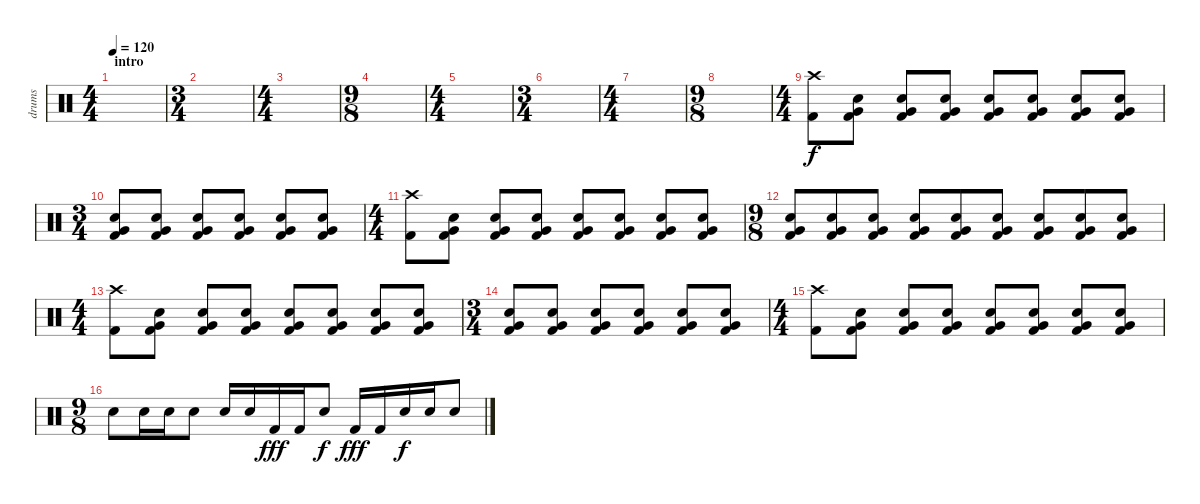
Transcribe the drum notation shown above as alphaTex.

\track ("drums" "drums") {instrument percussion}
\staff {score}
\articulation defaults
\ts (4 4)
\section ("" "intro")
\tempo 120
\clef neutral
\ks c
|
\ts (3 4)
|
\ts (4 4)
|
\ts (9 8)
|
\ts (4 4)
|
\ts (3 4)
|
\ts (4 4)
|
\ts (9 8)
|
\ts (4 4)
("Crash high (hit)" "Kick (hit) 2").8 ("Snare (hit) 2" "Very Low Tom (hit)" "Kick (hit) 2").8 ("Snare (hit) 2" "Very Low Tom (hit)" "Kick (hit) 2").8 ("Snare (hit) 2" "Very Low Tom (hit)" "Kick (hit) 2").8 ("Snare (hit) 2" "Very Low Tom (hit)" "Kick (hit) 2").8 ("Snare (hit) 2" "Very Low Tom (hit)" "Kick (hit) 2").8 ("Snare (hit) 2" "Very Low Tom (hit)" "Kick (hit) 2").8 ("Snare (hit) 2" "Very Low Tom (hit)" "Kick (hit) 2").8 |
\ts (3 4)
("Snare (hit) 2" "Very Low Tom (hit)" "Kick (hit) 2").8 ("Snare (hit) 2" "Very Low Tom (hit)" "Kick (hit) 2").8 ("Snare (hit) 2" "Very Low Tom (hit)" "Kick (hit) 2").8 ("Snare (hit) 2" "Very Low Tom (hit)" "Kick (hit) 2").8 ("Snare (hit) 2" "Very Low Tom (hit)" "Kick (hit) 2").8 ("Snare (hit) 2" "Very Low Tom (hit)" "Kick (hit) 2").8 |
\ts (4 4)
("Crash high (hit)" "Kick (hit) 2").8 ("Snare (hit) 2" "Very Low Tom (hit)" "Kick (hit) 2").8 ("Snare (hit) 2" "Very Low Tom (hit)" "Kick (hit) 2").8 ("Snare (hit) 2" "Very Low Tom (hit)" "Kick (hit) 2").8 ("Snare (hit) 2" "Very Low Tom (hit)" "Kick (hit) 2").8 ("Snare (hit) 2" "Very Low Tom (hit)" "Kick (hit) 2").8 ("Snare (hit) 2" "Very Low Tom (hit)" "Kick (hit) 2").8 ("Snare (hit) 2" "Very Low Tom (hit)" "Kick (hit) 2").8 |
\ts (9 8)
("Snare (hit) 2" "Very Low Tom (hit)" "Kick (hit) 2").8 ("Snare (hit) 2" "Very Low Tom (hit)" "Kick (hit) 2").8 ("Snare (hit) 2" "Very Low Tom (hit)" "Kick (hit) 2").8 ("Snare (hit) 2" "Very Low Tom (hit)" "Kick (hit) 2").8 ("Snare (hit) 2" "Very Low Tom (hit)" "Kick (hit) 2").8 ("Snare (hit) 2" "Very Low Tom (hit)" "Kick (hit) 2").8 ("Snare (hit) 2" "Very Low Tom (hit)" "Kick (hit) 2").8 ("Snare (hit) 2" "Very Low Tom (hit)" "Kick (hit) 2").8 ("Snare (hit) 2" "Very Low Tom (hit)" "Kick (hit) 2").8 |
\ts (4 4)
("Crash high (hit)" "Kick (hit) 2").8 ("Snare (hit) 2" "Very Low Tom (hit)" "Kick (hit) 2").8 ("Snare (hit) 2" "Very Low Tom (hit)" "Kick (hit) 2").8 ("Snare (hit) 2" "Very Low Tom (hit)" "Kick (hit) 2").8 ("Snare (hit) 2" "Very Low Tom (hit)" "Kick (hit) 2").8 ("Snare (hit) 2" "Very Low Tom (hit)" "Kick (hit) 2").8 ("Snare (hit) 2" "Very Low Tom (hit)" "Kick (hit) 2").8 ("Snare (hit) 2" "Very Low Tom (hit)" "Kick (hit) 2").8 |
\ts (3 4)
("Snare (hit) 2" "Very Low Tom (hit)" "Kick (hit) 2").8 ("Snare (hit) 2" "Very Low Tom (hit)" "Kick (hit) 2").8 ("Snare (hit) 2" "Very Low Tom (hit)" "Kick (hit) 2").8 ("Snare (hit) 2" "Very Low Tom (hit)" "Kick (hit) 2").8 ("Snare (hit) 2" "Very Low Tom (hit)" "Kick (hit) 2").8 ("Snare (hit) 2" "Very Low Tom (hit)" "Kick (hit) 2").8 |
\ts (4 4)
("Crash high (hit)" "Kick (hit) 2").8 ("Snare (hit) 2" "Very Low Tom (hit)" "Kick (hit) 2").8 ("Snare (hit) 2" "Very Low Tom (hit)" "Kick (hit) 2").8 ("Snare (hit) 2" "Very Low Tom (hit)" "Kick (hit) 2").8 ("Snare (hit) 2" "Very Low Tom (hit)" "Kick (hit) 2").8 ("Snare (hit) 2" "Very Low Tom (hit)" "Kick (hit) 2").8 ("Snare (hit) 2" "Very Low Tom (hit)" "Kick (hit) 2").8 ("Snare (hit) 2" "Very Low Tom (hit)" "Kick (hit) 2").8 |
\ts (9 8)
"Snare (hit) 2".8{dy f} "Snare (hit) 2".16 "Snare (hit) 2".16 "Snare (hit) 2".8 "Snare (hit) 2".16 "Snare (hit) 2".16 "Kick (hit) 2".16{dy fff} "Kick (hit) 2".16 "Snare (hit) 2".8{dy f} "Kick (hit) 2".16{dy fff} "Kick (hit) 2".16 "Snare (hit) 2".16{dy f} "Snare (hit) 2".16 "Snare (hit) 2".8
